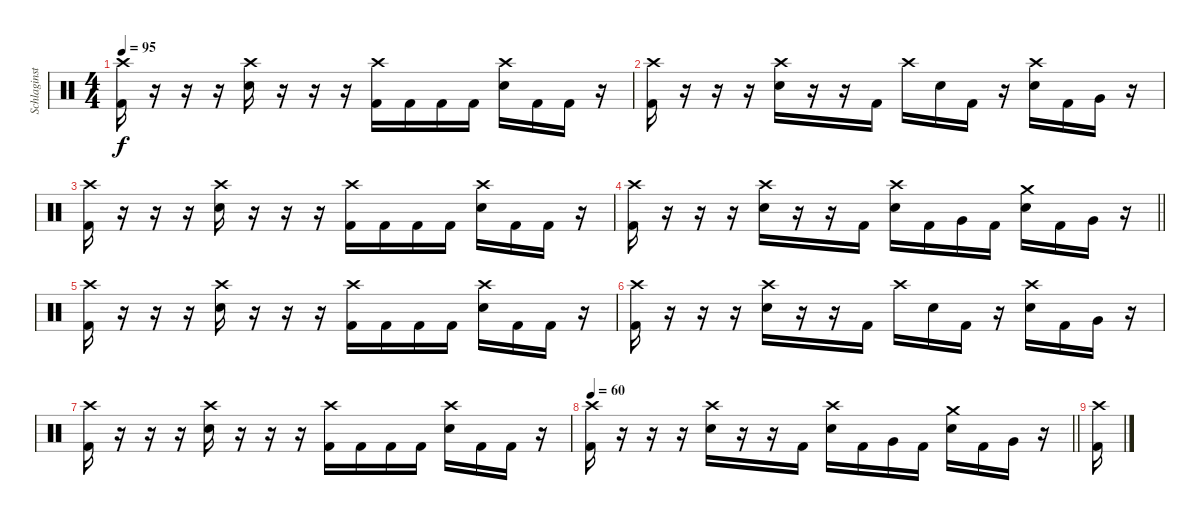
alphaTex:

\track ("Schlaginstrumente - Auswahl" "Schlaginst") {instrument percussion}
\staff {score}
\articulation defaults
\ts (4 4)
\tempo 95
\clef neutral
\ks c
("Crash high (hit)" "Kick (hit) 2").16{dy f} r.16 r.16 r.16 ("Crash high (hit)" "Electric Snare (hit)").16 r.16 r.16 r.16 ("Crash high (hit)" "Kick (hit) 2").16 "Kick (hit) 2".16 "Kick (hit) 2".16 "Kick (hit) 2".16 ("Crash high (hit)" "Electric Snare (hit)").16 "Kick (hit) 2".16 "Kick (hit) 2".16 r.16 |
("Crash high (hit)" "Kick (hit) 2").16 r.16 r.16 r.16 ("Crash high (hit)" "Electric Snare (hit)").16 r.16 r.16 "Kick (hit) 2".16 "Crash high (hit)".16 "Electric Snare (hit)".16 "Kick (hit) 2".16 r.16 ("Crash high (hit)" "Electric Snare (hit)").16 "Kick (hit) 2".16 "Very Low Tom (hit)".16 r.16 |
("Crash high (hit)" "Kick (hit) 2").16 r.16 r.16 r.16 ("Crash high (hit)" "Electric Snare (hit)").16 r.16 r.16 r.16 ("Crash high (hit)" "Kick (hit) 2").16 "Kick (hit) 2".16 "Kick (hit) 2".16 "Kick (hit) 2".16 ("Crash high (hit)" "Electric Snare (hit)").16 "Kick (hit) 2".16 "Kick (hit) 2".16 r.16 |
\barLineRight lightlight
("Crash high (hit)" "Kick (hit) 2").16 r.16 r.16 r.16 ("Crash high (hit)" "Electric Snare (hit)").16 r.16 r.16 "Kick (hit) 2".16 ("Crash high (hit)" "Electric Snare (hit)").16 "Kick (hit) 2".16 "Very Low Tom (hit)".16 "Kick (hit) 2".16 ("Crash medium (hit)" "Electric Snare (hit)").16 "Kick (hit) 2".16 "Very Low Tom (hit)".16 r.16 |
("Crash high (hit)" "Kick (hit) 2").16 r.16 r.16 r.16 ("Crash high (hit)" "Electric Snare (hit)").16 r.16 r.16 r.16 ("Crash high (hit)" "Kick (hit) 2").16 "Kick (hit) 2".16 "Kick (hit) 2".16 "Kick (hit) 2".16 ("Crash high (hit)" "Electric Snare (hit)").16 "Kick (hit) 2".16 "Kick (hit) 2".16 r.16 |
("Crash high (hit)" "Kick (hit) 2").16 r.16 r.16 r.16 ("Crash high (hit)" "Electric Snare (hit)").16 r.16 r.16 "Kick (hit) 2".16 "Crash high (hit)".16 "Electric Snare (hit)".16 "Kick (hit) 2".16 r.16 ("Crash high (hit)" "Electric Snare (hit)").16 "Kick (hit) 2".16 "Very Low Tom (hit)".16 r.16 |
("Crash high (hit)" "Kick (hit) 2").16 r.16 r.16 r.16 ("Crash high (hit)" "Electric Snare (hit)").16 r.16 r.16 r.16 ("Crash high (hit)" "Kick (hit) 2").16 "Kick (hit) 2".16 "Kick (hit) 2".16 "Kick (hit) 2".16 ("Crash high (hit)" "Electric Snare (hit)").16 "Kick (hit) 2".16 "Kick (hit) 2".16 r.16 |
\tempo 60
\barLineRight lightlight
("Crash high (hit)" "Kick (hit) 2").16 r.16 r.16 r.16 ("Crash high (hit)" "Electric Snare (hit)").16 r.16 r.16 "Kick (hit) 2".16 ("Crash high (hit)" "Electric Snare (hit)").16 "Kick (hit) 2".16 "Very Low Tom (hit)".16 "Kick (hit) 2".16 ("Crash medium (hit)" "Electric Snare (hit)").16 "Kick (hit) 2".16 "Very Low Tom (hit)".16 r.16 |
("Crash high (hit)" "Kick (hit) 2").16
